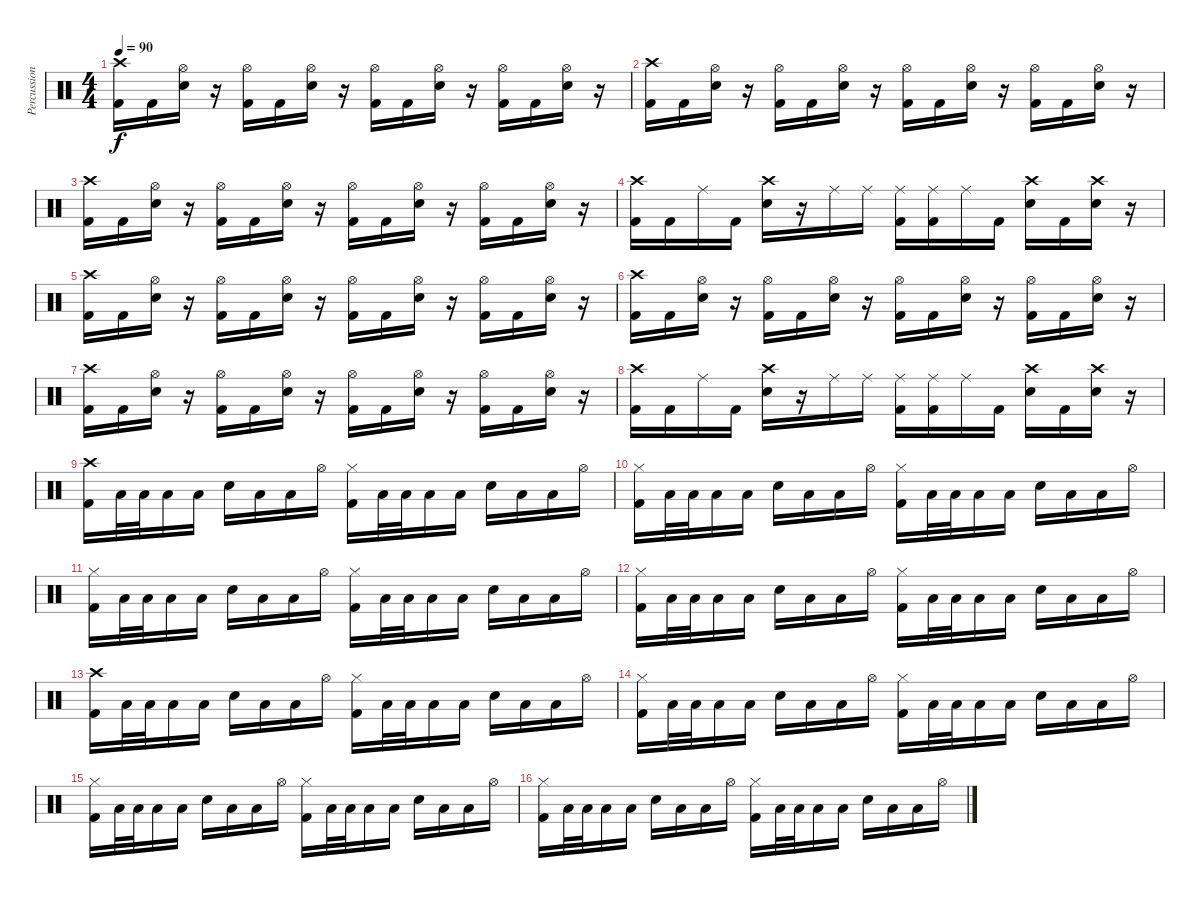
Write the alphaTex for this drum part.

\track ("Percussion" "Percussion") {instrument percussion}
\staff {score}
\articulation defaults
\ts (4 4)
\tempo 90
\clef neutral
\ks c
("Crash high (hit)" "Kick (hit) 2").16{dy f} "Kick (hit) 2".16 ("Hi-Hat (open)" "Snare (hit) 2").16 r.16 ("Hi-Hat (open)" "Kick (hit) 2").16 "Kick (hit) 2".16 ("Hi-Hat (open)" "Snare (hit) 2").16 r.16 ("Hi-Hat (open)" "Kick (hit) 2").16 "Kick (hit) 2".16 ("Hi-Hat (open)" "Snare (hit) 2").16 r.16 ("Hi-Hat (open)" "Kick (hit) 2").16 "Kick (hit) 2".16 ("Hi-Hat (open)" "Snare (hit) 2").16 r.16 |
("Crash high (hit)" "Kick (hit) 2").16 "Kick (hit) 2".16 ("Hi-Hat (open)" "Snare (hit) 2").16 r.16 ("Hi-Hat (open)" "Kick (hit) 2").16 "Kick (hit) 2".16 ("Hi-Hat (open)" "Snare (hit) 2").16 r.16 ("Hi-Hat (open)" "Kick (hit) 2").16 "Kick (hit) 2".16 ("Hi-Hat (open)" "Snare (hit) 2").16 r.16 ("Hi-Hat (open)" "Kick (hit) 2").16 "Kick (hit) 2".16 ("Hi-Hat (open)" "Snare (hit) 2").16 r.16 |
("Crash high (hit)" "Kick (hit) 2").16 "Kick (hit) 2".16 ("Hi-Hat (open)" "Snare (hit) 2").16 r.16 ("Hi-Hat (open)" "Kick (hit) 2").16 "Kick (hit) 2".16 ("Hi-Hat (open)" "Snare (hit) 2").16 r.16 ("Hi-Hat (open)" "Kick (hit) 2").16 "Kick (hit) 2".16 ("Hi-Hat (open)" "Snare (hit) 2").16 r.16 ("Hi-Hat (open)" "Kick (hit) 2").16 "Kick (hit) 2".16 ("Hi-Hat (open)" "Snare (hit) 2").16 r.16 |
("Crash high (hit)" "Kick (hit) 2").16 "Kick (hit) 2".16 "Ride (middle)".16 "Kick (hit) 2".16 ("Crash high (hit)" "Snare (hit) 2").16 r.16 "Ride (middle)".16 "Ride (middle)".16 ("Ride (middle)" "Kick (hit) 2").16 ("Ride (middle)" "Kick (hit) 2").16 "Ride (middle)".16 "Kick (hit) 2".16 ("Crash high (hit)" "Snare (hit) 2").16 "Kick (hit) 2".16 ("Crash high (hit)" "Snare (hit) 2").16 r.16 |
("Crash high (hit)" "Kick (hit) 2").16 "Kick (hit) 2".16 ("Hi-Hat (open)" "Snare (hit) 2").16 r.16 ("Hi-Hat (open)" "Kick (hit) 2").16 "Kick (hit) 2".16 ("Hi-Hat (open)" "Snare (hit) 2").16 r.16 ("Hi-Hat (open)" "Kick (hit) 2").16 "Kick (hit) 2".16 ("Hi-Hat (open)" "Snare (hit) 2").16 r.16 ("Hi-Hat (open)" "Kick (hit) 2").16 "Kick (hit) 2".16 ("Hi-Hat (open)" "Snare (hit) 2").16 r.16 |
("Crash high (hit)" "Kick (hit) 2").16 "Kick (hit) 2".16 ("Hi-Hat (open)" "Snare (hit) 2").16 r.16 ("Hi-Hat (open)" "Kick (hit) 2").16 "Kick (hit) 2".16 ("Hi-Hat (open)" "Snare (hit) 2").16 r.16 ("Hi-Hat (open)" "Kick (hit) 2").16 "Kick (hit) 2".16 ("Hi-Hat (open)" "Snare (hit) 2").16 r.16 ("Hi-Hat (open)" "Kick (hit) 2").16 "Kick (hit) 2".16 ("Hi-Hat (open)" "Snare (hit) 2").16 r.16 |
("Crash high (hit)" "Kick (hit) 2").16 "Kick (hit) 2".16 ("Hi-Hat (open)" "Snare (hit) 2").16 r.16 ("Hi-Hat (open)" "Kick (hit) 2").16 "Kick (hit) 2".16 ("Hi-Hat (open)" "Snare (hit) 2").16 r.16 ("Hi-Hat (open)" "Kick (hit) 2").16 "Kick (hit) 2".16 ("Hi-Hat (open)" "Snare (hit) 2").16 r.16 ("Hi-Hat (open)" "Kick (hit) 2").16 "Kick (hit) 2".16 ("Hi-Hat (open)" "Snare (hit) 2").16 r.16 |
("Crash high (hit)" "Kick (hit) 2").16 "Kick (hit) 2".16 "Ride (middle)".16 "Kick (hit) 2".16 ("Crash high (hit)" "Snare (hit) 2").16 r.16 "Ride (middle)".16 "Ride (middle)".16 ("Ride (middle)" "Kick (hit) 2").16 ("Ride (middle)" "Kick (hit) 2").16 "Ride (middle)".16 "Kick (hit) 2".16 ("Crash high (hit)" "Snare (hit) 2").16 "Kick (hit) 2".16 ("Crash high (hit)" "Snare (hit) 2").16 r.16 |
("Crash high (hit)" "Kick (hit) 2").16 "Low Floor Tom (hit)".32 "Low Floor Tom (hit)".32 "Low Floor Tom (hit)".16 "Low Floor Tom (hit)".16 "Snare (hit) 2".16 "Low Floor Tom (hit)".16 "Low Floor Tom (hit)".16 "Hi-Hat (open)".16 ("Hi-Hat (closed)" "Kick (hit) 2").16 "Low Floor Tom (hit)".32 "Low Floor Tom (hit)".32 "Low Floor Tom (hit)".16 "Low Floor Tom (hit)".16 "Snare (hit) 2".16 "Low Floor Tom (hit)".16 "Low Floor Tom (hit)".16 "Hi-Hat (open)".16 |
("Hi-Hat (closed)" "Kick (hit) 2").16 "Low Floor Tom (hit)".32 "Low Floor Tom (hit)".32 "Low Floor Tom (hit)".16 "Low Floor Tom (hit)".16 "Snare (hit) 2".16 "Low Floor Tom (hit)".16 "Low Floor Tom (hit)".16 "Hi-Hat (open)".16 ("Hi-Hat (closed)" "Kick (hit) 2").16 "Low Floor Tom (hit)".32 "Low Floor Tom (hit)".32 "Low Floor Tom (hit)".16 "Low Floor Tom (hit)".16 "Snare (hit) 2".16 "Low Floor Tom (hit)".16 "Low Floor Tom (hit)".16 "Hi-Hat (open)".16 |
("Hi-Hat (closed)" "Kick (hit) 2").16 "Low Floor Tom (hit)".32 "Low Floor Tom (hit)".32 "Low Floor Tom (hit)".16 "Low Floor Tom (hit)".16 "Snare (hit) 2".16 "Low Floor Tom (hit)".16 "Low Floor Tom (hit)".16 "Hi-Hat (open)".16 ("Hi-Hat (closed)" "Kick (hit) 2").16 "Low Floor Tom (hit)".32 "Low Floor Tom (hit)".32 "Low Floor Tom (hit)".16 "Low Floor Tom (hit)".16 "Snare (hit) 2".16 "Low Floor Tom (hit)".16 "Low Floor Tom (hit)".16 "Hi-Hat (open)".16 |
("Hi-Hat (closed)" "Kick (hit) 2").16 "Low Floor Tom (hit)".32 "Low Floor Tom (hit)".32 "Low Floor Tom (hit)".16 "Low Floor Tom (hit)".16 "Snare (hit) 2".16 "Low Floor Tom (hit)".16 "Low Floor Tom (hit)".16 "Hi-Hat (open)".16 ("Hi-Hat (closed)" "Kick (hit) 2").16 "Low Floor Tom (hit)".32 "Low Floor Tom (hit)".32 "Low Floor Tom (hit)".16 "Low Floor Tom (hit)".16 "Snare (hit) 2".16 "Low Floor Tom (hit)".16 "Low Floor Tom (hit)".16 "Hi-Hat (open)".16 |
("Crash high (hit)" "Kick (hit) 2").16 "Low Floor Tom (hit)".32 "Low Floor Tom (hit)".32 "Low Floor Tom (hit)".16 "Low Floor Tom (hit)".16 "Snare (hit) 2".16 "Low Floor Tom (hit)".16 "Low Floor Tom (hit)".16 "Hi-Hat (open)".16 ("Hi-Hat (closed)" "Kick (hit) 2").16 "Low Floor Tom (hit)".32 "Low Floor Tom (hit)".32 "Low Floor Tom (hit)".16 "Low Floor Tom (hit)".16 "Snare (hit) 2".16 "Low Floor Tom (hit)".16 "Low Floor Tom (hit)".16 "Hi-Hat (open)".16 |
("Hi-Hat (closed)" "Kick (hit) 2").16 "Low Floor Tom (hit)".32 "Low Floor Tom (hit)".32 "Low Floor Tom (hit)".16 "Low Floor Tom (hit)".16 "Snare (hit) 2".16 "Low Floor Tom (hit)".16 "Low Floor Tom (hit)".16 "Hi-Hat (open)".16 ("Hi-Hat (closed)" "Kick (hit) 2").16 "Low Floor Tom (hit)".32 "Low Floor Tom (hit)".32 "Low Floor Tom (hit)".16 "Low Floor Tom (hit)".16 "Snare (hit) 2".16 "Low Floor Tom (hit)".16 "Low Floor Tom (hit)".16 "Hi-Hat (open)".16 |
("Hi-Hat (closed)" "Kick (hit) 2").16 "Low Floor Tom (hit)".32 "Low Floor Tom (hit)".32 "Low Floor Tom (hit)".16 "Low Floor Tom (hit)".16 "Snare (hit) 2".16 "Low Floor Tom (hit)".16 "Low Floor Tom (hit)".16 "Hi-Hat (open)".16 ("Hi-Hat (closed)" "Kick (hit) 2").16 "Low Floor Tom (hit)".32 "Low Floor Tom (hit)".32 "Low Floor Tom (hit)".16 "Low Floor Tom (hit)".16 "Snare (hit) 2".16 "Low Floor Tom (hit)".16 "Low Floor Tom (hit)".16 "Hi-Hat (open)".16 |
("Hi-Hat (closed)" "Kick (hit) 2").16 "Low Floor Tom (hit)".32 "Low Floor Tom (hit)".32 "Low Floor Tom (hit)".16 "Low Floor Tom (hit)".16 "Snare (hit) 2".16 "Low Floor Tom (hit)".16 "Low Floor Tom (hit)".16 "Hi-Hat (open)".16 ("Hi-Hat (closed)" "Kick (hit) 2").16 "Low Floor Tom (hit)".32 "Low Floor Tom (hit)".32 "Low Floor Tom (hit)".16 "Low Floor Tom (hit)".16 "Snare (hit) 2".16 "Low Floor Tom (hit)".16 "Low Floor Tom (hit)".16 "Hi-Hat (open)".16
